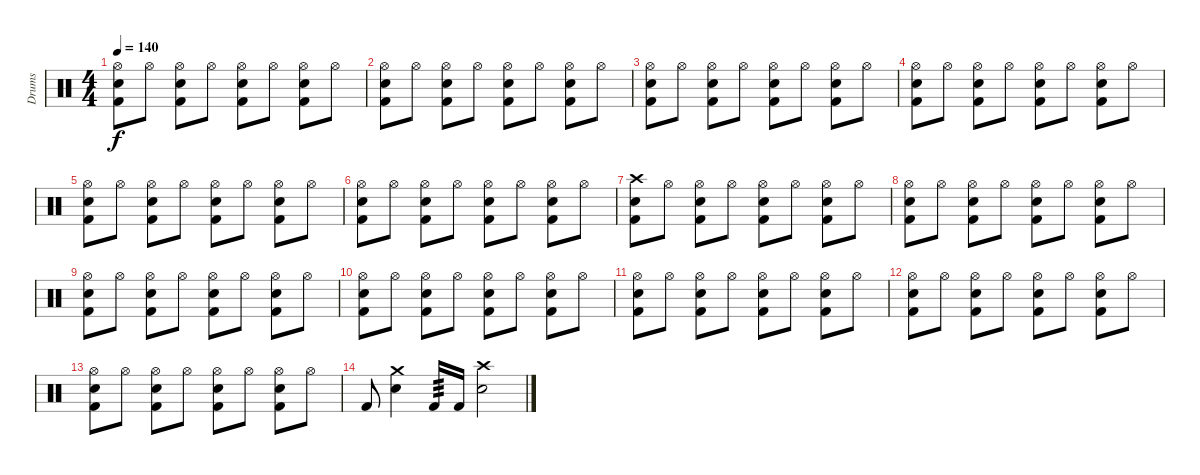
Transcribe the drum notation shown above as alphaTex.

\track ("Drums" "Drums") {instrument percussion}
\staff {score}
\articulation defaults
\ts (4 4)
\tempo 140
\clef neutral
\ks c
("Hi-Hat (open)" "Snare (hit) 2" "Kick (hit) 2").8{dy f} "Hi-Hat (open)".8 ("Hi-Hat (open)" "Snare (hit) 2" "Kick (hit) 2").8 "Hi-Hat (open)".8 ("Hi-Hat (open)" "Snare (hit) 2" "Kick (hit) 2").8 "Hi-Hat (open)".8 ("Hi-Hat (open)" "Snare (hit) 2" "Kick (hit) 2").8 "Hi-Hat (open)".8 |
("Hi-Hat (open)" "Snare (hit) 2" "Kick (hit) 2").8 "Hi-Hat (open)".8 ("Hi-Hat (open)" "Snare (hit) 2" "Kick (hit) 2").8 "Hi-Hat (open)".8 ("Hi-Hat (open)" "Snare (hit) 2" "Kick (hit) 2").8 "Hi-Hat (open)".8 ("Hi-Hat (open)" "Snare (hit) 2" "Kick (hit) 2").8 "Hi-Hat (open)".8 |
("Hi-Hat (open)" "Snare (hit) 2" "Kick (hit) 2").8 "Hi-Hat (open)".8 ("Hi-Hat (open)" "Snare (hit) 2" "Kick (hit) 2").8 "Hi-Hat (open)".8 ("Hi-Hat (open)" "Snare (hit) 2" "Kick (hit) 2").8 "Hi-Hat (open)".8 ("Hi-Hat (open)" "Snare (hit) 2" "Kick (hit) 2").8 "Hi-Hat (open)".8 |
("Hi-Hat (open)" "Snare (hit) 2" "Kick (hit) 2").8 "Hi-Hat (open)".8 ("Hi-Hat (open)" "Snare (hit) 2" "Kick (hit) 2").8 "Hi-Hat (open)".8 ("Hi-Hat (open)" "Snare (hit) 2" "Kick (hit) 2").8 "Hi-Hat (open)".8 ("Hi-Hat (open)" "Snare (hit) 2" "Kick (hit) 2").8 "Hi-Hat (open)".8 |
("Hi-Hat (open)" "Snare (hit) 2" "Kick (hit) 2").8 "Hi-Hat (open)".8 ("Hi-Hat (open)" "Snare (hit) 2" "Kick (hit) 2").8 "Hi-Hat (open)".8 ("Hi-Hat (open)" "Snare (hit) 2" "Kick (hit) 2").8 "Hi-Hat (open)".8 ("Hi-Hat (open)" "Snare (hit) 2" "Kick (hit) 2").8 "Hi-Hat (open)".8 |
("Hi-Hat (open)" "Snare (hit) 2" "Kick (hit) 2").8 "Hi-Hat (open)".8 ("Hi-Hat (open)" "Snare (hit) 2" "Kick (hit) 2").8 "Hi-Hat (open)".8 ("Hi-Hat (open)" "Snare (hit) 2" "Kick (hit) 2").8 "Hi-Hat (open)".8 ("Hi-Hat (open)" "Snare (hit) 2" "Kick (hit) 2").8 "Hi-Hat (open)".8 |
("Crash high (hit)" "Snare (hit) 2" "Kick (hit) 2").8 "Hi-Hat (open)".8 ("Hi-Hat (open)" "Snare (hit) 2" "Kick (hit) 2").8 "Hi-Hat (open)".8 ("Hi-Hat (open)" "Snare (hit) 2" "Kick (hit) 2").8 "Hi-Hat (open)".8 ("Hi-Hat (open)" "Snare (hit) 2" "Kick (hit) 2").8 "Hi-Hat (open)".8 |
("Hi-Hat (open)" "Snare (hit) 2" "Kick (hit) 2").8 "Hi-Hat (open)".8 ("Hi-Hat (open)" "Snare (hit) 2" "Kick (hit) 2").8 "Hi-Hat (open)".8 ("Hi-Hat (open)" "Snare (hit) 2" "Kick (hit) 2").8 "Hi-Hat (open)".8 ("Hi-Hat (open)" "Snare (hit) 2" "Kick (hit) 2").8 "Hi-Hat (open)".8 |
("Hi-Hat (open)" "Snare (hit) 2" "Kick (hit) 2").8 "Hi-Hat (open)".8 ("Hi-Hat (open)" "Snare (hit) 2" "Kick (hit) 2").8 "Hi-Hat (open)".8 ("Hi-Hat (open)" "Snare (hit) 2" "Kick (hit) 2").8 "Hi-Hat (open)".8 ("Hi-Hat (open)" "Snare (hit) 2" "Kick (hit) 2").8 "Hi-Hat (open)".8 |
("Hi-Hat (open)" "Snare (hit) 2" "Kick (hit) 2").8 "Hi-Hat (open)".8 ("Hi-Hat (open)" "Snare (hit) 2" "Kick (hit) 2").8 "Hi-Hat (open)".8 ("Hi-Hat (open)" "Snare (hit) 2" "Kick (hit) 2").8 "Hi-Hat (open)".8 ("Hi-Hat (open)" "Snare (hit) 2" "Kick (hit) 2").8 "Hi-Hat (open)".8 |
("Hi-Hat (open)" "Snare (hit) 2" "Kick (hit) 2").8 "Hi-Hat (open)".8 ("Hi-Hat (open)" "Snare (hit) 2" "Kick (hit) 2").8 "Hi-Hat (open)".8 ("Hi-Hat (open)" "Snare (hit) 2" "Kick (hit) 2").8 "Hi-Hat (open)".8 ("Hi-Hat (open)" "Snare (hit) 2" "Kick (hit) 2").8 "Hi-Hat (open)".8 |
("Hi-Hat (open)" "Snare (hit) 2" "Kick (hit) 2").8 "Hi-Hat (open)".8 ("Hi-Hat (open)" "Snare (hit) 2" "Kick (hit) 2").8 "Hi-Hat (open)".8 ("Hi-Hat (open)" "Snare (hit) 2" "Kick (hit) 2").8 "Hi-Hat (open)".8 ("Hi-Hat (open)" "Snare (hit) 2" "Kick (hit) 2").8 "Hi-Hat (open)".8 |
("Hi-Hat (open)" "Snare (hit) 2" "Kick (hit) 2").8 "Hi-Hat (open)".8 ("Hi-Hat (open)" "Snare (hit) 2" "Kick (hit) 2").8 "Hi-Hat (open)".8 ("Hi-Hat (open)" "Snare (hit) 2" "Kick (hit) 2").8 "Hi-Hat (open)".8 ("Hi-Hat (open)" "Snare (hit) 2" "Kick (hit) 2").8 "Hi-Hat (open)".8 |
"Kick (hit) 2".8 ("Crash medium (hit)" "Snare (hit) 2").4 "Kick (hit) 2".16{tp 3} "Kick (hit) 2".16 ("Crash high (hit)" "Snare (hit) 2").2
